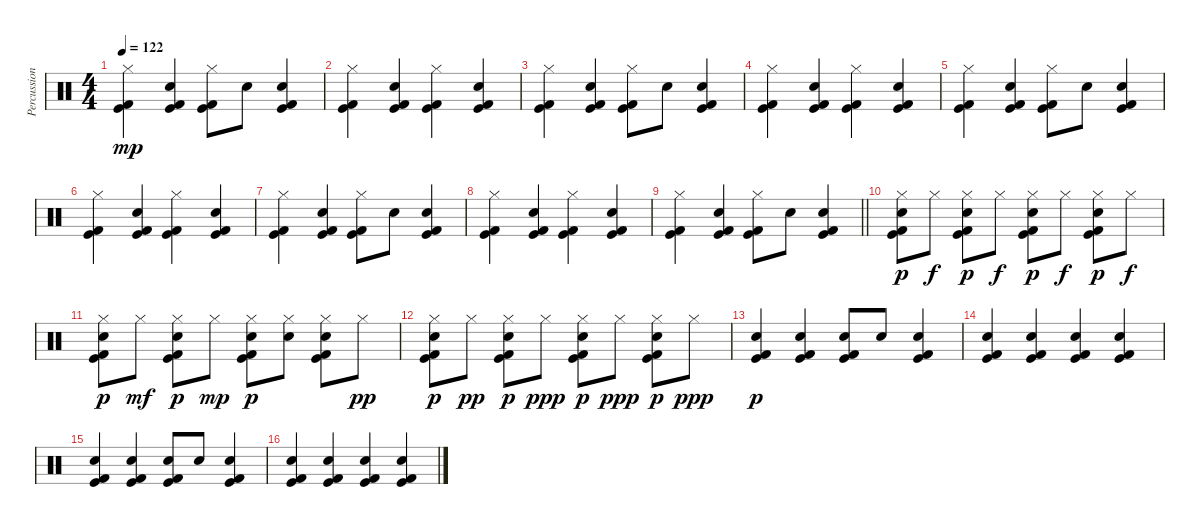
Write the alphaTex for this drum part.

\track ("Percussion" "Percussion") {instrument percussion}
\staff {score}
\articulation defaults
\ts (4 4)
\tempo 122
\clef neutral
\ks c
("Hi-Hat (closed)" "Kick (hit)" "Kick (hit) 2").4{dy mp} ("Hand Clap (hit)" "Kick (hit)" "Kick (hit) 2").4 ("Hi-Hat (closed)" "Kick (hit)" "Kick (hit) 2").8 "Hand Clap (hit)".8 ("Hand Clap (hit)" "Kick (hit)" "Kick (hit) 2").4 |
("Hi-Hat (closed)" "Kick (hit)" "Kick (hit) 2").4{volume 14} ("Hand Clap (hit)" "Kick (hit)" "Kick (hit) 2").4 ("Hi-Hat (closed)" "Kick (hit)" "Kick (hit) 2").4 ("Hand Clap (hit)" "Kick (hit)" "Kick (hit) 2").4 |
("Hi-Hat (closed)" "Kick (hit)" "Kick (hit) 2").4 ("Hand Clap (hit)" "Kick (hit)" "Kick (hit) 2").4 ("Hi-Hat (closed)" "Kick (hit)" "Kick (hit) 2").8 "Hand Clap (hit)".8 ("Hand Clap (hit)" "Kick (hit)" "Kick (hit) 2").4 |
("Hi-Hat (closed)" "Kick (hit)" "Kick (hit) 2").4 ("Hand Clap (hit)" "Kick (hit)" "Kick (hit) 2").4 ("Hi-Hat (closed)" "Kick (hit)" "Kick (hit) 2").4 ("Hand Clap (hit)" "Kick (hit)" "Kick (hit) 2").4 |
("Hi-Hat (closed)" "Kick (hit)" "Kick (hit) 2").4 ("Hand Clap (hit)" "Kick (hit)" "Kick (hit) 2").4 ("Hi-Hat (closed)" "Kick (hit)" "Kick (hit) 2").8 "Hand Clap (hit)".8 ("Hand Clap (hit)" "Kick (hit)" "Kick (hit) 2").4 |
("Hi-Hat (closed)" "Kick (hit)" "Kick (hit) 2").4 ("Hand Clap (hit)" "Kick (hit)" "Kick (hit) 2").4 ("Hi-Hat (closed)" "Kick (hit)" "Kick (hit) 2").4 ("Hand Clap (hit)" "Kick (hit)" "Kick (hit) 2").4 |
("Hi-Hat (closed)" "Kick (hit)" "Kick (hit) 2").4 ("Hand Clap (hit)" "Kick (hit)" "Kick (hit) 2").4 ("Hi-Hat (closed)" "Kick (hit)" "Kick (hit) 2").8 "Hand Clap (hit)".8 ("Hand Clap (hit)" "Kick (hit)" "Kick (hit) 2").4 |
("Hi-Hat (closed)" "Kick (hit)" "Kick (hit) 2").4 ("Hand Clap (hit)" "Kick (hit)" "Kick (hit) 2").4 ("Hi-Hat (closed)" "Kick (hit)" "Kick (hit) 2").4 ("Hand Clap (hit)" "Kick (hit)" "Kick (hit) 2").4 |
\barLineRight lightlight
("Hi-Hat (closed)" "Kick (hit)" "Kick (hit) 2").4 ("Hand Clap (hit)" "Kick (hit)" "Kick (hit) 2").4 ("Hi-Hat (closed)" "Kick (hit)" "Kick (hit) 2").8 "Hand Clap (hit)".8 ("Hand Clap (hit)" "Kick (hit)" "Kick (hit) 2").4 |
\section ("" "")
("Hi-Hat (closed)" "Hand Clap (hit)" "Kick (hit)" "Kick (hit) 2").8{dy p volume 12} "Hi-Hat (closed)".8{dy f} ("Hi-Hat (closed)" "Hand Clap (hit)" "Kick (hit)" "Kick (hit) 2").8{dy p} "Hi-Hat (closed)".8{dy f} ("Hi-Hat (closed)" "Hand Clap (hit)" "Kick (hit)" "Kick (hit) 2").8{dy p} "Hi-Hat (closed)".8{dy f} ("Hi-Hat (closed)" "Hand Clap (hit)" "Kick (hit)" "Kick (hit) 2").8{dy p} "Hi-Hat (closed)".8{dy f} |
("Hi-Hat (closed)" "Hand Clap (hit)" "Kick (hit)" "Kick (hit) 2").8{dy p} "Hi-Hat (closed)".8{dy mf} ("Hi-Hat (closed)" "Hand Clap (hit)" "Kick (hit)" "Kick (hit) 2").8{dy p} "Hi-Hat (closed)".8{dy mp} ("Hi-Hat (closed)" "Hand Clap (hit)" "Kick (hit)" "Kick (hit) 2").8{dy p} ("Hi-Hat (closed)" "Hand Clap (hit)").8 ("Hi-Hat (closed)" "Hand Clap (hit)" "Kick (hit)" "Kick (hit) 2").8 "Hi-Hat (closed)".8{dy pp} |
("Hi-Hat (closed)" "Hand Clap (hit)" "Kick (hit)" "Kick (hit) 2").8{dy p} "Hi-Hat (closed)".8{dy pp} ("Hi-Hat (closed)" "Hand Clap (hit)" "Kick (hit)" "Kick (hit) 2").8{dy p} "Hi-Hat (closed)".8{dy ppp} ("Hi-Hat (closed)" "Hand Clap (hit)" "Kick (hit)" "Kick (hit) 2").8{dy p} "Hi-Hat (closed)".8{dy ppp} ("Hi-Hat (closed)" "Hand Clap (hit)" "Kick (hit)" "Kick (hit) 2").8{dy p} "Hi-Hat (closed)".8{dy ppp} |
("Hand Clap (hit)" "Kick (hit)" "Kick (hit) 2").4{dy p} ("Hand Clap (hit)" "Kick (hit)" "Kick (hit) 2").4 ("Hand Clap (hit)" "Kick (hit)" "Kick (hit) 2").8 "Hand Clap (hit)".8 ("Hand Clap (hit)" "Kick (hit)" "Kick (hit) 2").4 |
("Hand Clap (hit)" "Kick (hit)" "Kick (hit) 2").4 ("Hand Clap (hit)" "Kick (hit)" "Kick (hit) 2").4 ("Hand Clap (hit)" "Kick (hit)" "Kick (hit) 2").4 ("Hand Clap (hit)" "Kick (hit)" "Kick (hit) 2").4 |
("Hand Clap (hit)" "Kick (hit)" "Kick (hit) 2").4 ("Hand Clap (hit)" "Kick (hit)" "Kick (hit) 2").4 ("Hand Clap (hit)" "Kick (hit)" "Kick (hit) 2").8 "Hand Clap (hit)".8 ("Hand Clap (hit)" "Kick (hit)" "Kick (hit) 2").4 |
("Hand Clap (hit)" "Kick (hit)" "Kick (hit) 2").4 ("Hand Clap (hit)" "Kick (hit)" "Kick (hit) 2").4 ("Hand Clap (hit)" "Kick (hit)" "Kick (hit) 2").4 ("Hand Clap (hit)" "Kick (hit)" "Kick (hit) 2").4
